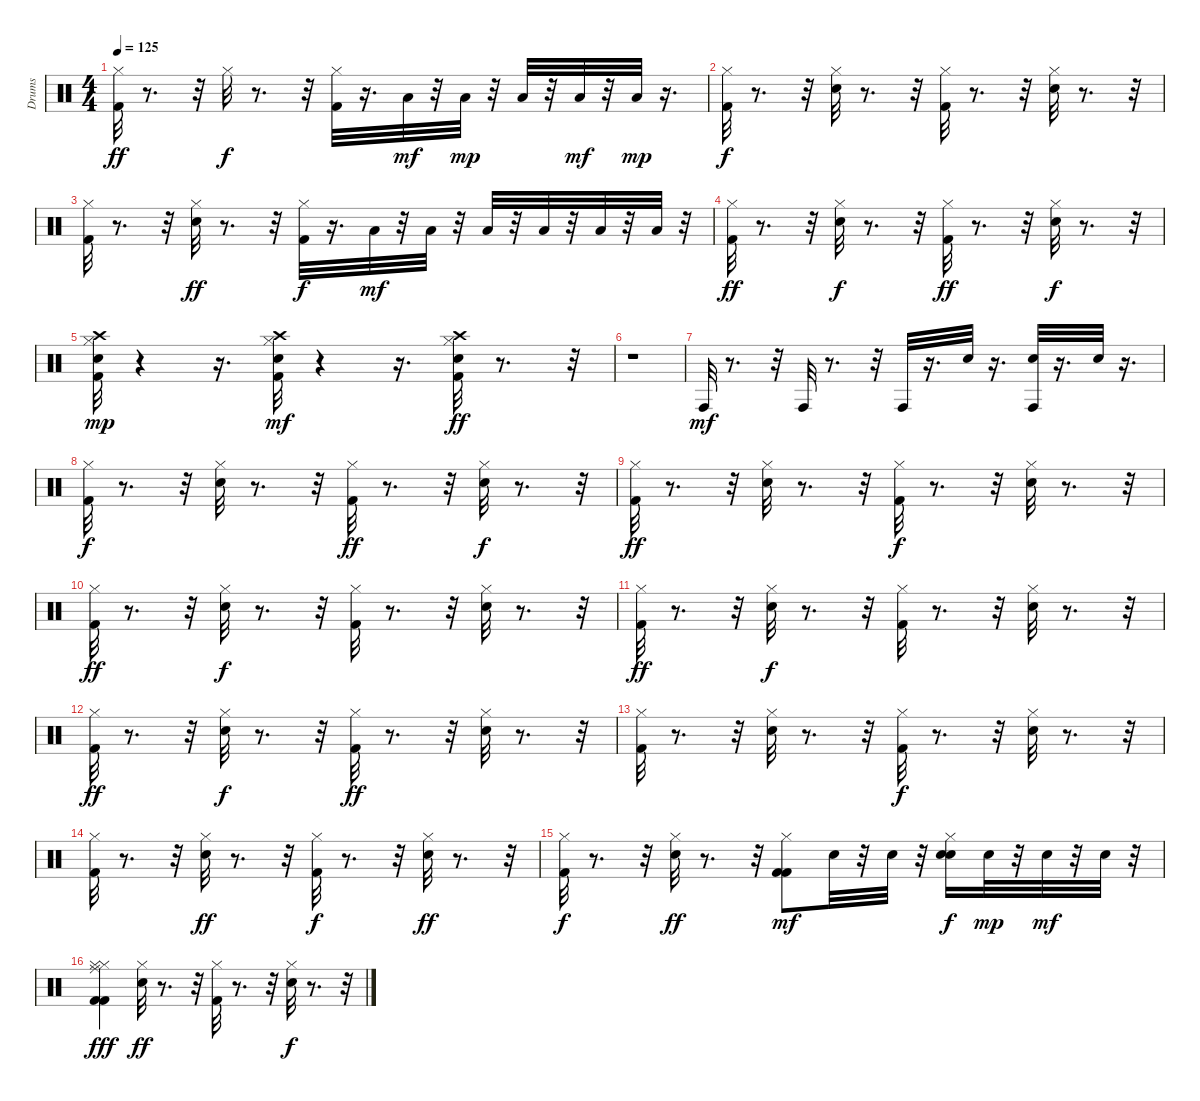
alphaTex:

\track ("Drums" "Drums") {instrument percussion}
\staff {score}
\articulation defaults
\ts (4 4)
\tempo 125
\clef neutral
\ks c
("Kick (hit) 2" "Hi-Hat (closed)").32{dy ff} r.8{d} r.32 "Hi-Hat (closed)".32{dy f} r.8{d} r.32 ("Hi-Hat (closed)" "Kick (hit) 2").32 r.16{d} "Low Floor Tom (hit)".32{dy mf} r.32 "Low Floor Tom (hit)".32{dy mp} r.32 "Low Floor Tom (hit)".32 r.32 "Low Floor Tom (hit)".32{dy mf} r.32 "Low Floor Tom (hit)".32{dy mp} r.16{d} |
("Kick (hit) 2" "Hi-Hat (closed)").32{dy f} r.8{d} r.32 ("Hi-Hat (closed)" "Snare (hit) 2").32 r.8{d} r.32 ("Hi-Hat (closed)" "Kick (hit) 2").32 r.8{d} r.32 ("Snare (hit) 2" "Hi-Hat (closed)").32 r.8{d} r.32 |
("Hi-Hat (closed)" "Kick (hit) 2").32 r.8{d} r.32 ("Snare (hit) 2" "Hi-Hat (closed)").32{dy ff} r.8{d} r.32 ("Hi-Hat (closed)" "Kick (hit) 2").32{dy f} r.16{d} "Low Floor Tom (hit)".32{dy mf} r.32 "Low Floor Tom (hit)".32 r.32 "Low Floor Tom (hit)".32 r.32 "Low Floor Tom (hit)".32 r.32 "Low Floor Tom (hit)".32 r.32 "Low Floor Tom (hit)".32 r.32 |
("Hi-Hat (closed)" "Kick (hit) 2").32{dy ff} r.8{d} r.32 ("Hi-Hat (closed)" "Snare (hit) 2").32{dy f} r.8{d} r.32 ("Kick (hit) 2" "Hi-Hat (closed)").32{dy ff} r.8{d} r.32 ("Snare (hit) 2" "Hi-Hat (closed)").32{dy f} r.8{d} r.32 |
("Hi-Hat (closed)" "Kick (hit) 2" "Crash high (hit)" "Snare (hit) 2").32{dy mp} r.4 r.16{d} ("Hi-Hat (closed)" "Crash high (hit)" "Snare (hit) 2" "Kick (hit) 2").32{dy mf} r.4 r.16{d} ("Crash high (hit)" "Kick (hit) 2" "Hi-Hat (closed)" "Snare (hit) 2").32{dy ff} r.8{d} r.32 |
r.1 |
"Conga high (hit)".32{dy mf} r.8{d} r.32 "Conga high (hit)".32 r.8{d} r.32 "Conga high (hit)".32 r.16{d} "Snare (hit) 2".32 r.16{d} ("Snare (hit) 2" "Conga high (hit)").32 r.16{d} "Snare (hit) 2".32 r.16{d} |
("Kick (hit) 2" "Hi-Hat (closed)").32{dy f} r.8{d} r.32 ("Hi-Hat (closed)" "Snare (hit) 2").32 r.8{d} r.32 ("Kick (hit) 2" "Hi-Hat (closed)").32{dy ff} r.8{d} r.32 ("Hi-Hat (closed)" "Snare (hit) 2").32{dy f} r.8{d} r.32 |
("Hi-Hat (closed)" "Kick (hit) 2").32{dy ff} r.8{d} r.32 ("Hi-Hat (closed)" "Snare (hit) 2").32 r.8{d} r.32 ("Hi-Hat (closed)" "Kick (hit) 2").32{dy f} r.8{d} r.32 ("Snare (hit) 2" "Hi-Hat (closed)").32 r.8{d} r.32 |
("Kick (hit) 2" "Hi-Hat (closed)").32{dy ff} r.8{d} r.32 ("Hi-Hat (closed)" "Snare (hit) 2").32{dy f} r.8{d} r.32 ("Hi-Hat (closed)" "Kick (hit) 2").32 r.8{d} r.32 ("Snare (hit) 2" "Hi-Hat (closed)").32 r.8{d} r.32 |
("Kick (hit) 2" "Hi-Hat (closed)").32{dy ff} r.8{d} r.32 ("Hi-Hat (closed)" "Snare (hit) 2").32{dy f} r.8{d} r.32 ("Hi-Hat (closed)" "Kick (hit) 2").32 r.8{d} r.32 ("Snare (hit) 2" "Hi-Hat (closed)").32 r.8{d} r.32 |
("Hi-Hat (closed)" "Kick (hit) 2").32{dy ff} r.8{d} r.32 ("Hi-Hat (closed)" "Snare (hit) 2").32{dy f} r.8{d} r.32 ("Kick (hit) 2" "Hi-Hat (closed)").32{dy ff} r.8{d} r.32 ("Hi-Hat (closed)" "Snare (hit) 2").32 r.8{d} r.32 |
("Hi-Hat (closed)" "Kick (hit) 2").32 r.8{d} r.32 ("Snare (hit) 2" "Hi-Hat (closed)").32 r.8{d} r.32 ("Kick (hit) 2" "Hi-Hat (closed)").32{dy f} r.8{d} r.32 ("Hi-Hat (closed)" "Snare (hit) 2").32 r.8{d} r.32 |
("Kick (hit) 2" "Hi-Hat (closed)").32 r.8{d} r.32 ("Hi-Hat (closed)" "Snare (hit) 2").32{dy ff} r.8{d} r.32 ("Hi-Hat (closed)" "Kick (hit) 2").32{dy f} r.8{d} r.32 ("Hi-Hat (closed)" "Snare (hit) 2").32{dy ff} r.8{d} r.32 |
("Hi-Hat (closed)" "Kick (hit) 2").32{dy f} r.8{d} r.32 ("Snare (hit) 2" "Hi-Hat (closed)").32{dy ff} r.8{d} r.32 ("Kick (hit) 2" "Hi-Hat (closed)" "Kick (hit) 2").8{dy mf} "Snare (hit) 2".32 r.32 "Snare (hit) 2".32 r.32 ("Snare (hit) 2" "Hi-Hat (closed)" "Snare (hit) 2").16{dy f} "Snare (hit) 2".32{dy mp} r.32 "Snare (hit) 2".32{dy mf} r.32 "Snare (hit) 2".32 r.32 |
("Hi-Hat (closed)" "Hi-Hat (closed)" "Kick (hit) 2" "Ride (middle)" "Kick (hit) 2").4{dy fff} ("Snare (hit) 2" "Hi-Hat (closed)").32{dy ff} r.8{d} r.32 ("Kick (hit) 2" "Hi-Hat (closed)").32 r.8{d} r.32 ("Hi-Hat (closed)" "Snare (hit) 2").32{dy f} r.8{d} r.32
